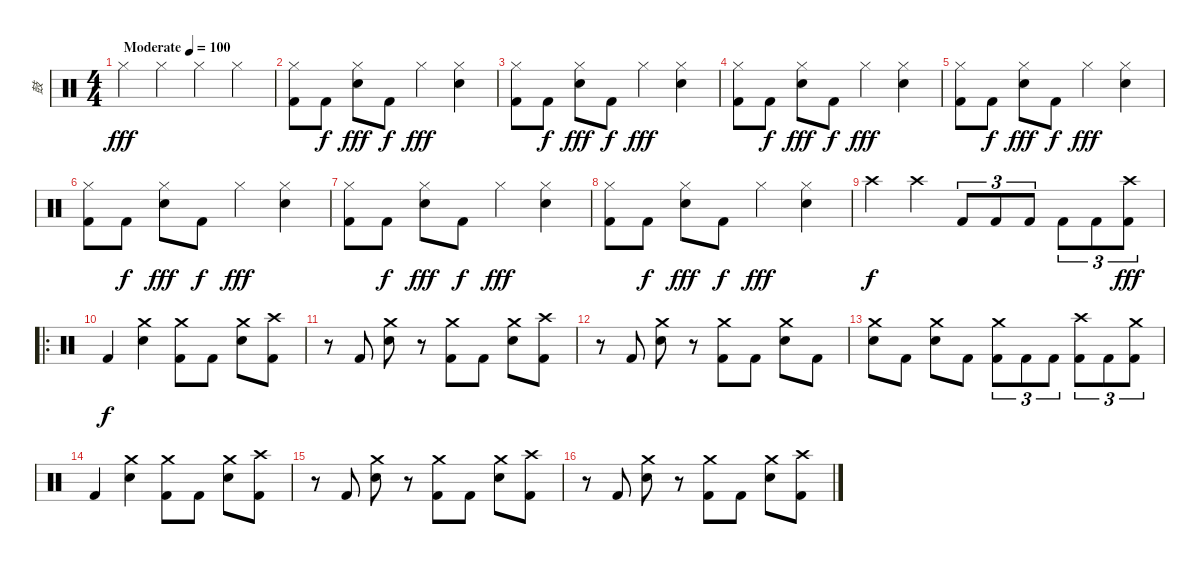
\track ("鼓" "鼓") {instrument percussion}
\staff {score}
\articulation defaults
\ts (4 4)
\tempo (100 "Moderate")
\clef neutral
\ks c "Hi-Hat (closed)".4{dy fff} "Hi-Hat (closed)".4 "Hi-Hat (closed)".4 "Hi-Hat (closed)".4
|
("Hi-Hat (closed)" "Kick (hit) 2").8 "Kick (hit) 2".8{dy f} ("Hi-Hat (closed)" "Snare (hit) 2").8{dy fff} "Kick (hit) 2".8{dy f} "Hi-Hat (closed)".4{dy fff} ("Hi-Hat (closed)" "Snare (hit) 2").4 |
("Hi-Hat (closed)" "Kick (hit) 2").8 "Kick (hit) 2".8{dy f} ("Hi-Hat (closed)" "Snare (hit) 2").8{dy fff} "Kick (hit) 2".8{dy f} "Hi-Hat (closed)".4{dy fff} ("Hi-Hat (closed)" "Snare (hit) 2").4 |
("Hi-Hat (closed)" "Kick (hit) 2").8 "Kick (hit) 2".8{dy f} ("Hi-Hat (closed)" "Snare (hit) 2").8{dy fff} "Kick (hit) 2".8{dy f} "Hi-Hat (closed)".4{dy fff} ("Hi-Hat (closed)" "Snare (hit) 2").4 |
("Hi-Hat (closed)" "Kick (hit) 2").8 "Kick (hit) 2".8{dy f} ("Hi-Hat (closed)" "Snare (hit) 2").8{dy fff} "Kick (hit) 2".8{dy f} "Hi-Hat (closed)".4{dy fff} ("Hi-Hat (closed)" "Snare (hit) 2").4 |
("Hi-Hat (closed)" "Kick (hit) 2").8 "Kick (hit) 2".8{dy f} ("Hi-Hat (closed)" "Snare (hit) 2").8{dy fff} "Kick (hit) 2".8{dy f} "Hi-Hat (closed)".4{dy fff} ("Hi-Hat (closed)" "Snare (hit) 2").4 |
("Hi-Hat (closed)" "Kick (hit) 2").8 "Kick (hit) 2".8{dy f} ("Hi-Hat (closed)" "Snare (hit) 2").8{dy fff} "Kick (hit) 2".8{dy f} "Hi-Hat (closed)".4{dy fff} ("Hi-Hat (closed)" "Snare (hit) 2").4 |
("Hi-Hat (closed)" "Kick (hit) 2").8 "Kick (hit) 2".8{dy f} ("Hi-Hat (closed)" "Snare (hit) 2").8{dy fff} "Kick (hit) 2".8{dy f} "Hi-Hat (closed)".4{dy fff} ("Hi-Hat (closed)" "Snare (hit) 2").4 |
"Crash high (hit)".4{dy f} "Crash high (hit)".4 "Kick (hit) 2".8{tu (3 2)} "Kick (hit) 2".8{tu (3 2)} "Kick (hit) 2".8{tu (3 2)} "Kick (hit) 2".8{tu (3 2)} "Kick (hit) 2".8{tu (3 2)} ("Crash high (hit)" "Kick (hit) 2").8{tu (3 2) dy fff} |
\ro "Kick (hit) 2".4{dy f}
("Crash medium (hit)" "Snare (hit) 2").4 ("Crash medium (hit)" "Kick (hit) 2").8 "Kick (hit) 2".8 ("Crash medium (hit)" "Snare (hit) 2").8 ("Crash high (hit)" "Kick (hit) 2").8 |
r.8 "Kick (hit) 2".8 ("Crash medium (hit)" "Snare (hit) 2").8 r.8 ("Crash medium (hit)" "Kick (hit) 2").8 "Kick (hit) 2".8 ("Crash medium (hit)" "Snare (hit) 2").8 ("Crash high (hit)" "Kick (hit) 2").8 |
r.8 "Kick (hit) 2".8 ("Crash medium (hit)" "Snare (hit) 2").8 r.8 ("Crash medium (hit)" "Kick (hit) 2").8 "Kick (hit) 2".8 ("Crash medium (hit)" "Snare (hit) 2").8 "Kick (hit) 2".8 |
("Crash medium (hit)" "Snare (hit) 2").8 "Kick (hit) 2".8 ("Crash medium (hit)" "Snare (hit) 2").8 "Kick (hit) 2".8 ("Crash medium (hit)" "Kick (hit) 2").8{tu (3 2)} "Kick (hit) 2".8{tu (3 2)} "Kick (hit) 2".8{tu (3 2)} ("Crash high (hit)" "Kick (hit) 2").8{tu (3 2)} "Kick (hit) 2".8{tu (3 2)} ("Crash medium (hit)" "Kick (hit) 2").8{tu (3 2)} |
"Kick (hit) 2".4 ("Crash medium (hit)" "Snare (hit) 2").4 ("Crash medium (hit)" "Kick (hit) 2").8 "Kick (hit) 2".8 ("Crash medium (hit)" "Snare (hit) 2").8 ("Crash high (hit)" "Kick (hit) 2").8 |
r.8 "Kick (hit) 2".8 ("Crash medium (hit)" "Snare (hit) 2").8 r.8 ("Crash medium (hit)" "Kick (hit) 2").8 "Kick (hit) 2".8 ("Crash medium (hit)" "Snare (hit) 2").8 ("Crash high (hit)" "Kick (hit) 2").8 |
r.8 "Kick (hit) 2".8 ("Crash medium (hit)" "Snare (hit) 2").8 r.8 ("Crash medium (hit)" "Kick (hit) 2").8 "Kick (hit) 2".8 ("Crash medium (hit)" "Snare (hit) 2").8 ("Crash high (hit)" "Kick (hit) 2").8
